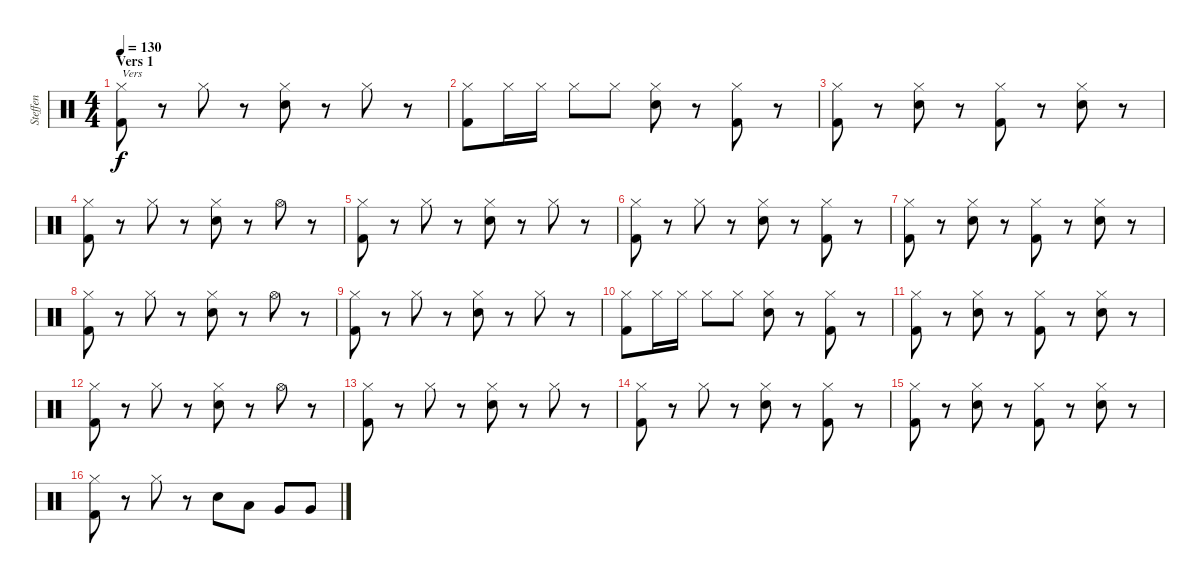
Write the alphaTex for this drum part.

\track ("Steffen" "Steffen") {instrument percussion}
\staff {score}
\articulation defaults
\ts (4 4)
\section ("" "Vers 1")
\tempo 130
\clef neutral
\ks c
("Hi-Hat (closed)" "Kick (hit) 2").8{txt "Vers" dy f} r.8 "Hi-Hat (closed)".8 r.8 ("Hi-Hat (closed)" "Snare (hit) 2").8 r.8 "Hi-Hat (closed)".8 r.8 |
("Hi-Hat (closed)" "Kick (hit) 2").8 "Hi-Hat (closed)".16 "Hi-Hat (closed)".16 "Hi-Hat (closed)".8 "Hi-Hat (closed)".8 ("Hi-Hat (closed)" "Snare (hit) 2").8 r.8 ("Hi-Hat (closed)" "Kick (hit) 2").8 r.8 |
("Hi-Hat (closed)" "Kick (hit) 2").8 r.8 ("Hi-Hat (closed)" "Snare (hit) 2").8 r.8 ("Hi-Hat (closed)" "Kick (hit) 2").8 r.8 ("Hi-Hat (closed)" "Snare (hit) 2").8 r.8 |
("Hi-Hat (closed)" "Kick (hit) 2").8 r.8 "Hi-Hat (closed)".8 r.8 ("Hi-Hat (closed)" "Snare (hit) 2").8 r.8 "Hi-Hat (open)".8 r.8 |
("Hi-Hat (closed)" "Kick (hit) 2").8 r.8 "Hi-Hat (closed)".8 r.8 ("Hi-Hat (closed)" "Snare (hit) 2").8 r.8 "Hi-Hat (closed)".8 r.8 |
("Hi-Hat (closed)" "Kick (hit) 2").8 r.8 "Hi-Hat (closed)".8 r.8 ("Hi-Hat (closed)" "Snare (hit) 2").8 r.8 ("Hi-Hat (closed)" "Kick (hit) 2").8 r.8 |
("Hi-Hat (closed)" "Kick (hit) 2").8 r.8 ("Hi-Hat (closed)" "Snare (hit) 2").8 r.8 ("Hi-Hat (closed)" "Kick (hit) 2").8 r.8 ("Hi-Hat (closed)" "Snare (hit) 2").8 r.8 |
("Hi-Hat (closed)" "Kick (hit) 2").8 r.8 "Hi-Hat (closed)".8 r.8 ("Hi-Hat (closed)" "Snare (hit) 2").8 r.8 "Hi-Hat (open)".8 r.8 |
("Hi-Hat (closed)" "Kick (hit) 2").8 r.8 "Hi-Hat (closed)".8 r.8 ("Hi-Hat (closed)" "Snare (hit) 2").8 r.8 "Hi-Hat (closed)".8 r.8 |
("Hi-Hat (closed)" "Kick (hit) 2").8 "Hi-Hat (closed)".16 "Hi-Hat (closed)".16 "Hi-Hat (closed)".8 "Hi-Hat (closed)".8 ("Hi-Hat (closed)" "Snare (hit) 2").8 r.8 ("Hi-Hat (closed)" "Kick (hit) 2").8 r.8 |
("Hi-Hat (closed)" "Kick (hit) 2").8 r.8 ("Hi-Hat (closed)" "Snare (hit) 2").8 r.8 ("Hi-Hat (closed)" "Kick (hit) 2").8 r.8 ("Hi-Hat (closed)" "Snare (hit) 2").8 r.8 |
("Hi-Hat (closed)" "Kick (hit) 2").8 r.8 "Hi-Hat (closed)".8 r.8 ("Hi-Hat (closed)" "Snare (hit) 2").8 r.8 "Hi-Hat (open)".8 r.8 |
("Hi-Hat (closed)" "Kick (hit) 2").8 r.8 "Hi-Hat (closed)".8 r.8 ("Hi-Hat (closed)" "Snare (hit) 2").8 r.8 "Hi-Hat (closed)".8 r.8 |
("Hi-Hat (closed)" "Kick (hit) 2").8 r.8 "Hi-Hat (closed)".8 r.8 ("Hi-Hat (closed)" "Snare (hit) 2").8 r.8 ("Hi-Hat (closed)" "Kick (hit) 2").8 r.8 |
("Hi-Hat (closed)" "Kick (hit) 2").8 r.8 ("Hi-Hat (closed)" "Snare (hit) 2").8 r.8 ("Hi-Hat (closed)" "Kick (hit) 2").8 r.8 ("Hi-Hat (closed)" "Snare (hit) 2").8 r.8 |
("Hi-Hat (closed)" "Kick (hit) 2").8 r.8 "Hi-Hat (closed)".8 r.8 "Snare (hit) 2".8 "Low Tom (hit)".8 "Very Low Tom (hit)".8 "Very Low Tom (hit)".8
